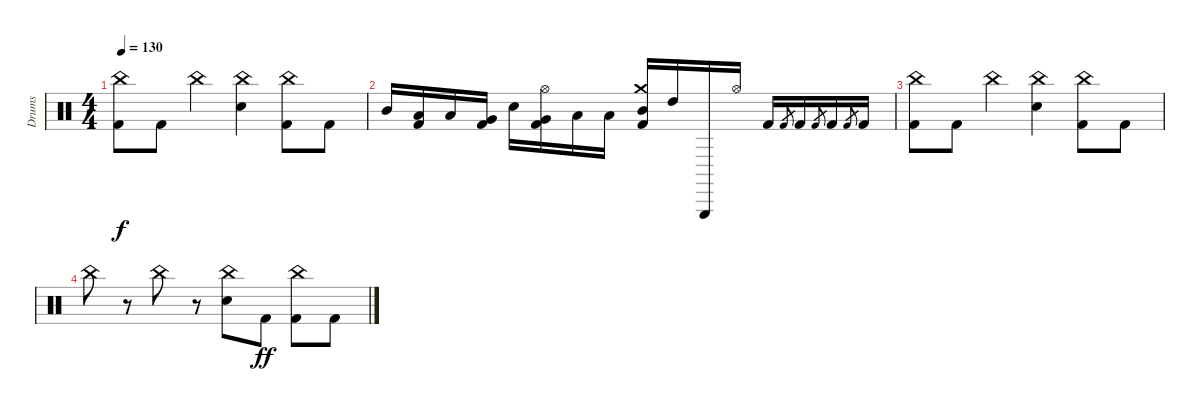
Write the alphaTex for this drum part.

\track ("Drums" "Drums") {instrument percussion}
\staff {score}
\articulation defaults
\ts (4 4)
\tempo 130
\clef neutral
\ks c
("China (hit)" "Kick (hit) 2").8{dy f} "Kick (hit) 2".8 "China (hit)".4 ("China (hit)" "Electric Snare (hit)").4 ("China (hit)" "Kick (hit) 2").8 "Kick (hit) 2".8 |
"Mid Tom (hit)".16 ("Low Tom (hit)" "Kick (hit) 2").16 "Low Tom (hit)".16 ("Very Low Tom (hit)" "Kick (hit) 2").16 "Electric Snare (hit)".16 ("Hi-Hat (open)" "Very Low Tom (hit)" "Kick (hit) 2").16 "Low Tom (hit)".16 "Low Tom (hit)".16 ("Crash medium (hit)" "Mid Tom (hit)" "Kick (hit) 2").16 "High Tom (hit)".16 "Triangle (hit)".16 "Hi-Hat (open)".16 "Kick (hit) 2".16 "Kick (hit) 2".8{gr} "Kick (hit) 2".16 "Kick (hit) 2".8{gr} "Kick (hit) 2".16 "Kick (hit) 2".8{gr} "Kick (hit) 2".16 |
("China (hit)" "Kick (hit) 2").8 "Kick (hit) 2".8 "China (hit)".4 ("China (hit)" "Electric Snare (hit)").4 ("China (hit)" "Kick (hit) 2").8 "Kick (hit) 2".8 |
"China (hit)".8 r.8 "China (hit)".8 r.8 ("China (hit)" "Electric Snare (hit)").8 "Kick (hit) 2".8{dy ff} ("China (hit)" "Kick (hit) 2").8 "Kick (hit) 2".8
